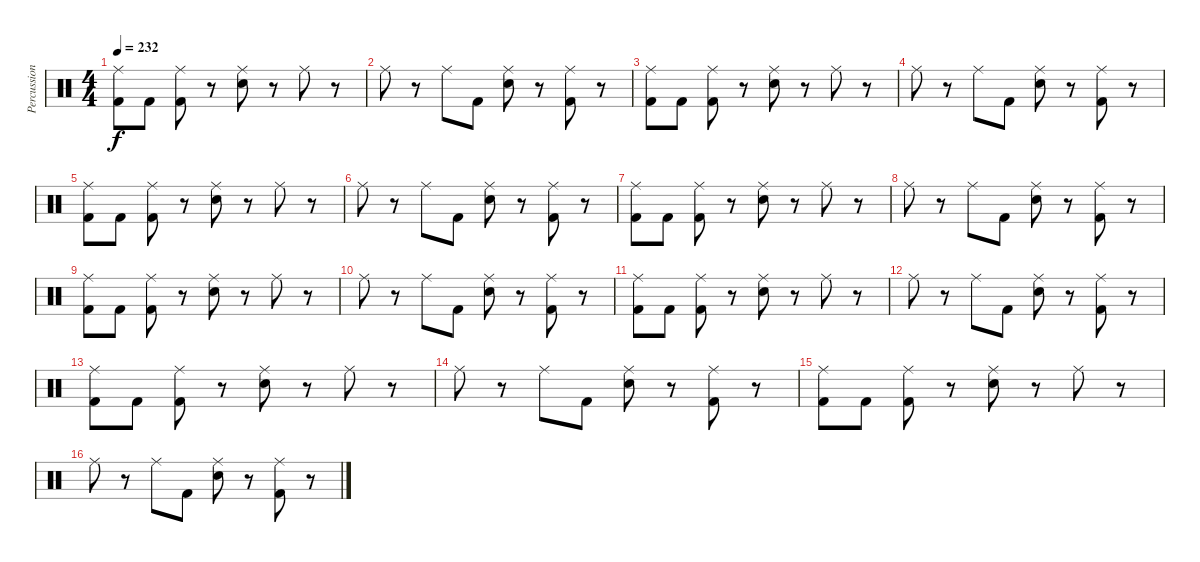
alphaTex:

\track ("Percussion" "Percussion") {instrument percussion}
\staff {score}
\articulation defaults
\ts (4 4)
\tempo 232
\clef neutral
\ks c
("Ride (middle)" "Kick (hit) 2").8{dy f} "Kick (hit) 2".8 ("Ride (middle)" "Kick (hit) 2").8 r.8 ("Ride (middle)" "Snare (hit) 2").8 r.8 "Ride (middle)".8 r.8 |
"Ride (middle)".8 r.8 "Ride (middle)".8 "Kick (hit) 2".8 ("Ride (middle)" "Snare (hit) 2").8 r.8 ("Ride (middle)" "Kick (hit) 2").8 r.8 |
("Ride (middle)" "Kick (hit) 2").8 "Kick (hit) 2".8 ("Ride (middle)" "Kick (hit) 2").8 r.8 ("Ride (middle)" "Snare (hit) 2").8 r.8 "Ride (middle)".8 r.8 |
"Ride (middle)".8 r.8 "Ride (middle)".8 "Kick (hit) 2".8 ("Ride (middle)" "Snare (hit) 2").8 r.8 ("Ride (middle)" "Kick (hit) 2").8 r.8 |
("Ride (middle)" "Kick (hit) 2").8 "Kick (hit) 2".8 ("Ride (middle)" "Kick (hit) 2").8 r.8 ("Ride (middle)" "Snare (hit) 2").8 r.8 "Ride (middle)".8 r.8 |
"Ride (middle)".8 r.8 "Ride (middle)".8 "Kick (hit) 2".8 ("Ride (middle)" "Snare (hit) 2").8 r.8 ("Ride (middle)" "Kick (hit) 2").8 r.8 |
("Ride (middle)" "Kick (hit) 2").8 "Kick (hit) 2".8 ("Ride (middle)" "Kick (hit) 2").8 r.8 ("Ride (middle)" "Snare (hit) 2").8 r.8 "Ride (middle)".8 r.8 |
"Ride (middle)".8 r.8 "Ride (middle)".8 "Kick (hit) 2".8 ("Ride (middle)" "Snare (hit) 2").8 r.8 ("Ride (middle)" "Kick (hit) 2").8 r.8 |
("Ride (middle)" "Kick (hit) 2").8 "Kick (hit) 2".8 ("Ride (middle)" "Kick (hit) 2").8 r.8 ("Ride (middle)" "Snare (hit) 2").8 r.8 "Ride (middle)".8 r.8 |
"Ride (middle)".8 r.8 "Ride (middle)".8 "Kick (hit) 2".8 ("Ride (middle)" "Snare (hit) 2").8 r.8 ("Ride (middle)" "Kick (hit) 2").8 r.8 |
("Ride (middle)" "Kick (hit) 2").8 "Kick (hit) 2".8 ("Ride (middle)" "Kick (hit) 2").8 r.8 ("Ride (middle)" "Snare (hit) 2").8 r.8 "Ride (middle)".8 r.8 |
"Ride (middle)".8 r.8 "Ride (middle)".8 "Kick (hit) 2".8 ("Ride (middle)" "Snare (hit) 2").8 r.8 ("Ride (middle)" "Kick (hit) 2").8 r.8 |
("Ride (middle)" "Kick (hit) 2").8 "Kick (hit) 2".8 ("Ride (middle)" "Kick (hit) 2").8 r.8 ("Ride (middle)" "Snare (hit) 2").8 r.8 "Ride (middle)".8 r.8 |
"Ride (middle)".8 r.8 "Ride (middle)".8 "Kick (hit) 2".8 ("Ride (middle)" "Snare (hit) 2").8 r.8 ("Ride (middle)" "Kick (hit) 2").8 r.8 |
("Ride (middle)" "Kick (hit) 2").8 "Kick (hit) 2".8 ("Ride (middle)" "Kick (hit) 2").8 r.8 ("Ride (middle)" "Snare (hit) 2").8 r.8 "Ride (middle)".8 r.8 |
"Ride (middle)".8 r.8 "Ride (middle)".8 "Kick (hit) 2".8 ("Ride (middle)" "Snare (hit) 2").8 r.8 ("Ride (middle)" "Kick (hit) 2").8 r.8
